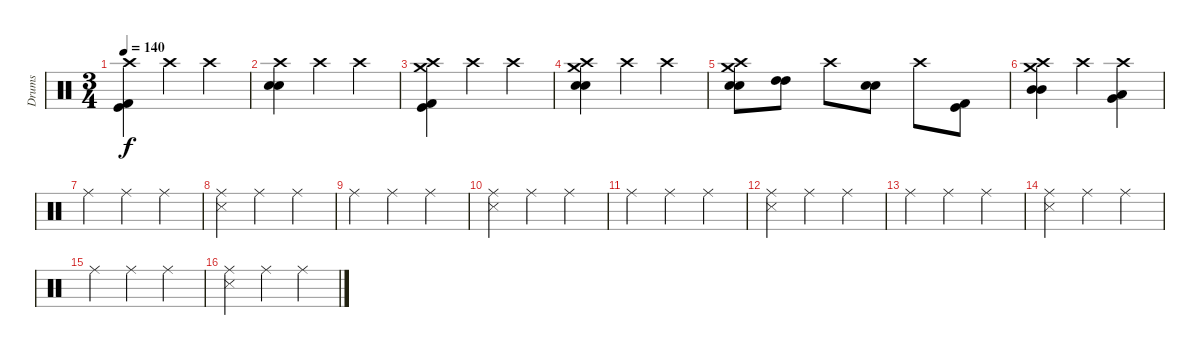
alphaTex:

\track ("Drums" "Drums") {instrument percussion}
\staff {score}
\articulation defaults
\ts (3 4)
\tempo 140
\clef neutral
\ks c
("Crash high (hit)" "Kick (hit) 2" "Kick (hit)").4{dy f} "Crash high (hit)".4 "Crash high (hit)".4 |
("Crash high (hit)" "Electric Snare (hit)" "Electric Snare (hit)").4 "Crash high (hit)".4 "Crash high (hit)".4 |
("Crash medium (hit)" "Crash high (hit)" "Kick (hit) 2" "Kick (hit)").4 "Crash high (hit)".4 "Crash high (hit)".4 |
("Crash medium (hit)" "Crash high (hit)" "Electric Snare (hit)" "Electric Snare (hit)").4 "Crash high (hit)".4 "Crash high (hit)".4 |
("Crash medium (hit)" "Crash high (hit)" "Snare (hit)" "Snare (hit)").8 ("High Tom (hit)" "High Tom (hit)").8 "Crash high (hit)".8 ("Electric Snare (hit)" "Electric Snare (hit)").8 "Crash high (hit)".8 ("Kick (hit) 2" "Kick (hit)").8 |
("Crash medium (hit)" "Crash high (hit)" "Mid Tom (hit)" "Mid Tom (hit)").4 "Crash high (hit)".4 ("Crash high (hit)" "Very Low Tom (hit)" "Low Floor Tom (hit)").4 |
"Ride (middle)".4 "Ride (middle)".4 "Ride (middle)".4 |
("Ride (middle)" "Snare (side stick) 3").4 "Ride (middle)".4 "Ride (middle)".4 |
"Ride (middle)".4 "Ride (middle)".4 "Ride (middle)".4 |
("Ride (middle)" "Snare (side stick) 3").4 "Ride (middle)".4 "Ride (middle)".4 |
"Ride (middle)".4 "Ride (middle)".4 "Ride (middle)".4 |
("Ride (middle)" "Snare (side stick) 3").4 "Ride (middle)".4 "Ride (middle)".4 |
"Ride (middle)".4 "Ride (middle)".4 "Ride (middle)".4 |
("Ride (middle)" "Snare (side stick) 3").4 "Ride (middle)".4 "Ride (middle)".4 |
"Ride (middle)".4 "Ride (middle)".4 "Ride (middle)".4 |
("Ride (middle)" "Snare (side stick) 3").4 "Ride (middle)".4 "Ride (middle)".4
